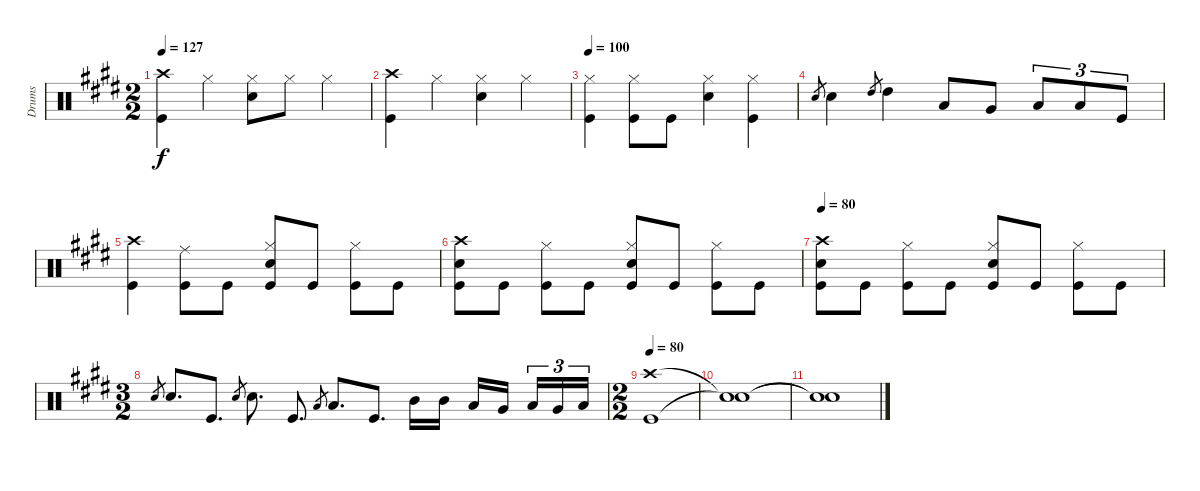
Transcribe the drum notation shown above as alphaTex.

\track ("Drums" "Drums") {solo instrument percussion}
\staff {score}
\articulation defaults
\ts (2 2)
\tempo 127
\clef neutral
\ks e
("Crash high (hit)" "Kick (hit)").4{dy f} "Hi-Hat (closed)".4 ("Hi-Hat (closed)" "Snare (hit) 2").8 "Hi-Hat (closed)".8 "Hi-Hat (closed)".4 |
("Crash high (hit)" "Kick (hit)").4 "Hi-Hat (closed)".4 ("Hi-Hat (closed)" "Snare (hit) 2").4 "Hi-Hat (closed)".4 |
\tempo 100
("Hi-Hat (closed)" "Kick (hit)").4 ("Hi-Hat (closed)" "Kick (hit)").8 "Kick (hit)".8 ("Hi-Hat (closed)" "Snare (hit) 2").4 ("Hi-Hat (closed)" "Kick (hit)").4 |
"Snare (hit) 2".8{gr} "Snare (hit) 2".4 "High Tom (hit)".8{gr} "High Tom (hit)".4 "Low Tom (hit)".8 "Very Low Tom (hit)".8 "Low Floor Tom (hit)".8{tu (3 2)} "Low Floor Tom (hit)".8{tu (3 2)} "Kick (hit)".8{tu (3 2)} |
("Crash high (hit)" "Kick (hit)").4 ("Ride (middle)" "Kick (hit)").8 "Kick (hit)".8 ("Hi-Hat (closed)" "Snare (hit) 2" "Kick (hit)").8 "Kick (hit)".8 ("Hi-Hat (closed)" "Kick (hit)").8 "Kick (hit)".8 |
("Crash high (hit)" "Snare (hit) 2" "Kick (hit)").8 "Kick (hit)".8 ("Hi-Hat (closed)" "Kick (hit)").8 "Kick (hit)".8 ("Hi-Hat (closed)" "Snare (hit) 2" "Kick (hit)").8 "Kick (hit)".8 ("Hi-Hat (closed)" "Kick (hit)").8 "Kick (hit)".8 |
\tempo 80
("Crash high (hit)" "Snare (hit) 2" "Kick (hit)").8 "Kick (hit)".8 ("Hi-Hat (closed)" "Kick (hit)").8 "Kick (hit)".8 ("Hi-Hat (closed)" "Snare (hit) 2" "Kick (hit)").8 "Kick (hit)".8 ("Hi-Hat (closed)" "Kick (hit)").8 "Kick (hit)".8 |
\ts (3 2)
"Snare (hit) 2".8{gr} "Snare (hit) 2".8{d} "Kick (hit)".8{d} "Snare (hit) 2".8{gr} "Snare (hit) 2".8{d} "Kick (hit)".8{d} "Low Tom (hit)".8{gr} "Low Tom (hit)".8{d} "Kick (hit)".8{d} "Mid Tom (hit)".16 "Mid Tom (hit)".16 "Low Tom (hit)".16 "Very Low Tom (hit)".16{beam splitsecondary} "Low Floor Tom (hit)".16{tu (3 2)} "Very Low Tom (hit)".16{tu (3 2)} "Low Floor Tom (hit)".16{tu (3 2)} |
\ts (2 2)
\tempo 80
("Crash high (hit)" "Kick (hit)").1 |
("Snare (hit)"{t} "Snare (hit)"{t}).1 |
("Snare (hit)"{t} "Snare (hit)"{t}).1
